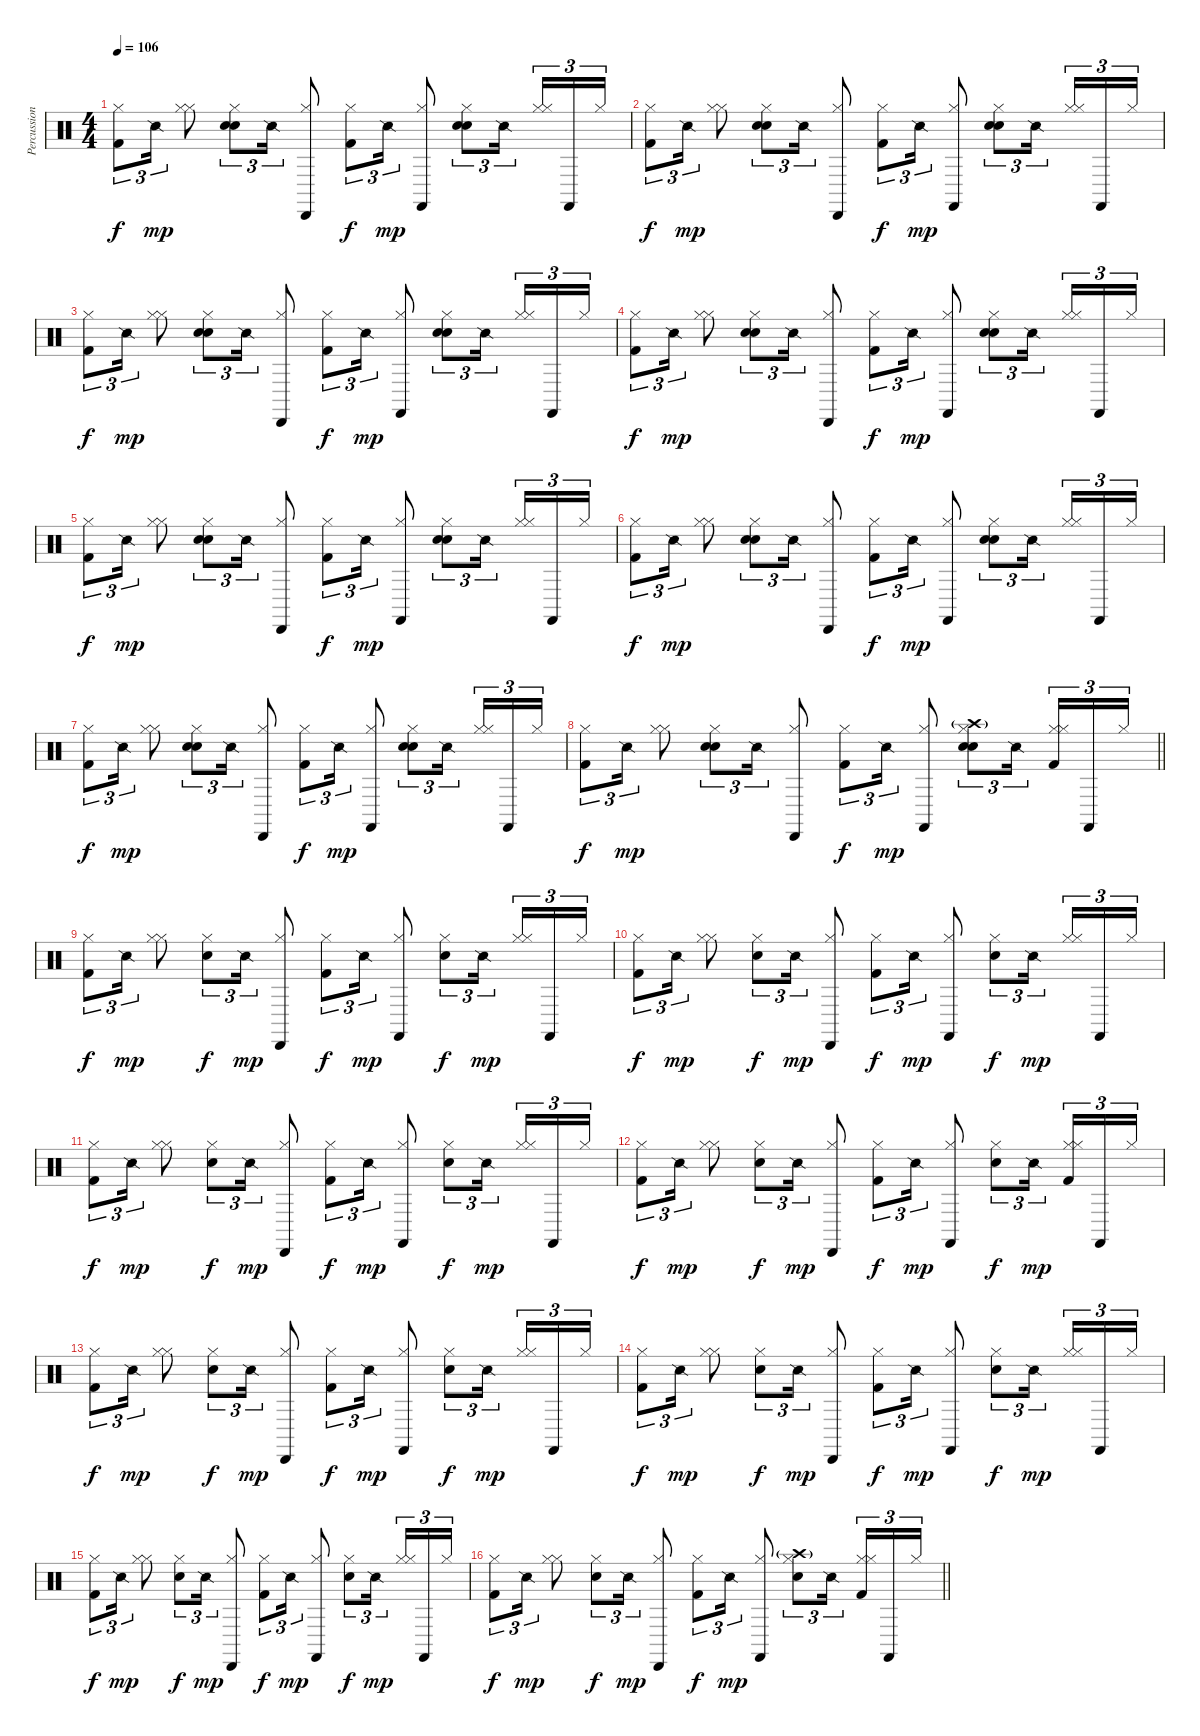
\track ("Percussion" "Percussion") {instrument percussion}
\staff {score}
\articulation defaults
\ts (4 4)
\tempo 106
\clef neutral
\ks c
("Hi-Hat (closed)" "Kick (hit) 2").8{tu (3 2) dy f} "Snare (side stick) 2".16{tu (3 2) dy mp} ("Hi-Hat (closed)" "Hi-Hat (closed)").8 ("Hand Clap (hit)" "Hi-Hat (closed)" "Electric Snare (hit)").8{tu (3 2)} "Snare (side stick) 2".16{tu (3 2)} ("Hi-Hat (closed)" "Cabasa (hit)").8 ("Hi-Hat (closed)" "Kick (hit) 2").8{tu (3 2) dy f} "Snare (side stick) 2".16{tu (3 2) dy mp} ("Hi-Hat (closed)" "Castanets (hit)").8 ("Hand Clap (hit)" "Hi-Hat (closed)" "Electric Snare (hit)").8{tu (3 2)} "Snare (side stick) 2".16{tu (3 2) beam splitsecondary} ("Hi-Hat (closed)" "Hi-Hat (closed)").16{tu (3 2)} "Castanets (hit)".16{tu (3 2)} "Hi-Hat (closed)".16{tu (3 2)} |
("Hi-Hat (closed)" "Kick (hit) 2").8{tu (3 2) dy f} "Snare (side stick) 2".16{tu (3 2) dy mp} ("Hi-Hat (closed)" "Hi-Hat (closed)").8 ("Hand Clap (hit)" "Hi-Hat (closed)" "Electric Snare (hit)").8{tu (3 2)} "Snare (side stick) 2".16{tu (3 2)} ("Hi-Hat (closed)" "Cabasa (hit)").8 ("Hi-Hat (closed)" "Kick (hit) 2").8{tu (3 2) dy f} "Snare (side stick) 2".16{tu (3 2) dy mp} ("Hi-Hat (closed)" "Castanets (hit)").8 ("Hand Clap (hit)" "Hi-Hat (closed)" "Electric Snare (hit)").8{tu (3 2)} "Snare (side stick) 2".16{tu (3 2) beam splitsecondary} ("Hi-Hat (closed)" "Hi-Hat (closed)").16{tu (3 2)} "Castanets (hit)".16{tu (3 2)} "Hi-Hat (closed)".16{tu (3 2)} |
("Hi-Hat (closed)" "Kick (hit) 2").8{tu (3 2) dy f} "Snare (side stick) 2".16{tu (3 2) dy mp} ("Hi-Hat (closed)" "Hi-Hat (closed)").8 ("Hand Clap (hit)" "Hi-Hat (closed)" "Electric Snare (hit)").8{tu (3 2)} "Snare (side stick) 2".16{tu (3 2)} ("Hi-Hat (closed)" "Cabasa (hit)").8 ("Hi-Hat (closed)" "Kick (hit) 2").8{tu (3 2) dy f} "Snare (side stick) 2".16{tu (3 2) dy mp} ("Hi-Hat (closed)" "Castanets (hit)").8 ("Hand Clap (hit)" "Hi-Hat (closed)" "Electric Snare (hit)").8{tu (3 2)} "Snare (side stick) 2".16{tu (3 2) beam splitsecondary} ("Hi-Hat (closed)" "Hi-Hat (closed)").16{tu (3 2)} "Castanets (hit)".16{tu (3 2)} "Hi-Hat (closed)".16{tu (3 2)} |
("Hi-Hat (closed)" "Kick (hit) 2").8{tu (3 2) dy f} "Snare (side stick) 2".16{tu (3 2) dy mp} ("Hi-Hat (closed)" "Hi-Hat (closed)").8 ("Hand Clap (hit)" "Hi-Hat (closed)" "Electric Snare (hit)").8{tu (3 2)} "Snare (side stick) 2".16{tu (3 2)} ("Hi-Hat (closed)" "Cabasa (hit)").8 ("Hi-Hat (closed)" "Kick (hit) 2").8{tu (3 2) dy f} "Snare (side stick) 2".16{tu (3 2) dy mp} ("Hi-Hat (closed)" "Castanets (hit)").8 ("Hand Clap (hit)" "Hi-Hat (closed)" "Electric Snare (hit)").8{tu (3 2)} "Snare (side stick) 2".16{tu (3 2) beam splitsecondary} ("Hi-Hat (closed)" "Hi-Hat (closed)").16{tu (3 2)} "Castanets (hit)".16{tu (3 2)} "Hi-Hat (closed)".16{tu (3 2)} |
("Hi-Hat (closed)" "Kick (hit) 2").8{tu (3 2) dy f} "Snare (side stick) 2".16{tu (3 2) dy mp} ("Hi-Hat (closed)" "Hi-Hat (closed)").8 ("Hand Clap (hit)" "Hi-Hat (closed)" "Electric Snare (hit)").8{tu (3 2)} "Snare (side stick) 2".16{tu (3 2)} ("Hi-Hat (closed)" "Cabasa (hit)").8 ("Hi-Hat (closed)" "Kick (hit) 2").8{tu (3 2) dy f} "Snare (side stick) 2".16{tu (3 2) dy mp} ("Hi-Hat (closed)" "Castanets (hit)").8 ("Hand Clap (hit)" "Hi-Hat (closed)" "Electric Snare (hit)").8{tu (3 2)} "Snare (side stick) 2".16{tu (3 2) beam splitsecondary} ("Hi-Hat (closed)" "Hi-Hat (closed)").16{tu (3 2)} "Castanets (hit)".16{tu (3 2)} "Hi-Hat (closed)".16{tu (3 2)} |
("Hi-Hat (closed)" "Kick (hit) 2").8{tu (3 2) dy f} "Snare (side stick) 2".16{tu (3 2) dy mp} ("Hi-Hat (closed)" "Hi-Hat (closed)").8 ("Hand Clap (hit)" "Hi-Hat (closed)" "Electric Snare (hit)").8{tu (3 2)} "Snare (side stick) 2".16{tu (3 2)} ("Hi-Hat (closed)" "Cabasa (hit)").8 ("Hi-Hat (closed)" "Kick (hit) 2").8{tu (3 2) dy f} "Snare (side stick) 2".16{tu (3 2) dy mp} ("Hi-Hat (closed)" "Castanets (hit)").8 ("Hand Clap (hit)" "Hi-Hat (closed)" "Electric Snare (hit)").8{tu (3 2)} "Snare (side stick) 2".16{tu (3 2) beam splitsecondary} ("Hi-Hat (closed)" "Hi-Hat (closed)").16{tu (3 2)} "Castanets (hit)".16{tu (3 2)} "Hi-Hat (closed)".16{tu (3 2)} |
("Hi-Hat (closed)" "Kick (hit) 2").8{tu (3 2) dy f} "Snare (side stick) 2".16{tu (3 2) dy mp} ("Hi-Hat (closed)" "Hi-Hat (closed)").8 ("Hand Clap (hit)" "Hi-Hat (closed)" "Electric Snare (hit)").8{tu (3 2)} "Snare (side stick) 2".16{tu (3 2)} ("Hi-Hat (closed)" "Cabasa (hit)").8 ("Hi-Hat (closed)" "Kick (hit) 2").8{tu (3 2) dy f} "Snare (side stick) 2".16{tu (3 2) dy mp} ("Hi-Hat (closed)" "Castanets (hit)").8 ("Hand Clap (hit)" "Hi-Hat (closed)" "Electric Snare (hit)").8{tu (3 2)} "Snare (side stick) 2".16{tu (3 2) beam splitsecondary} ("Hi-Hat (closed)" "Hi-Hat (closed)").16{tu (3 2)} "Castanets (hit)".16{tu (3 2)} "Hi-Hat (closed)".16{tu (3 2)} |
\barLineRight lightlight
("Hi-Hat (closed)" "Kick (hit) 2").8{tu (3 2) dy f} "Snare (side stick) 2".16{tu (3 2) dy mp} ("Hi-Hat (closed)" "Hi-Hat (closed)").8 ("Hand Clap (hit)" "Hi-Hat (closed)" "Electric Snare (hit)").8{tu (3 2)} "Snare (side stick) 2".16{tu (3 2)} ("Hi-Hat (closed)" "Cabasa (hit)").8 ("Hi-Hat (closed)" "Kick (hit) 2").8{tu (3 2) dy f} "Snare (side stick) 2".16{tu (3 2) dy mp} ("Hi-Hat (closed)" "Castanets (hit)").8 ("Crash high (hit)"{g} "Hi-Hat (closed)" "Electric Snare (hit)" "Hand Clap (hit)").8{tu (3 2)} "Snare (side stick) 2".16{tu (3 2) beam splitsecondary} ("Hi-Hat (closed)" "Hi-Hat (closed)" "Kick (hit) 2").16{tu (3 2)} "Castanets (hit)".16{tu (3 2)} "Hi-Hat (closed)".16{tu (3 2)} |
\section ("" "")
("Hi-Hat (closed)" "Kick (hit) 2").8{tu (3 2) dy f} "Snare (side stick) 2".16{tu (3 2) dy mp} ("Hi-Hat (closed)" "Hi-Hat (closed)").8 ("Hi-Hat (closed)" "Electric Snare (hit)").8{tu (3 2) dy f} "Snare (side stick) 2".16{tu (3 2) dy mp} ("Hi-Hat (closed)" "Cabasa (hit)").8 ("Hi-Hat (closed)" "Kick (hit) 2").8{tu (3 2) dy f} "Snare (side stick) 2".16{tu (3 2) dy mp} ("Hi-Hat (closed)" "Castanets (hit)").8 ("Hi-Hat (closed)" "Electric Snare (hit)").8{tu (3 2) dy f} "Snare (side stick) 2".16{tu (3 2) dy mp beam splitsecondary} ("Hi-Hat (closed)" "Hi-Hat (closed)").16{tu (3 2)} "Castanets (hit)".16{tu (3 2)} "Hi-Hat (closed)".16{tu (3 2)} |
("Hi-Hat (closed)" "Kick (hit) 2").8{tu (3 2) dy f} "Snare (side stick) 2".16{tu (3 2) dy mp} ("Hi-Hat (closed)" "Hi-Hat (closed)").8 ("Hi-Hat (closed)" "Electric Snare (hit)").8{tu (3 2) dy f} "Snare (side stick) 2".16{tu (3 2) dy mp} ("Hi-Hat (closed)" "Cabasa (hit)").8 ("Hi-Hat (closed)" "Kick (hit) 2").8{tu (3 2) dy f} "Snare (side stick) 2".16{tu (3 2) dy mp} ("Hi-Hat (closed)" "Castanets (hit)").8 ("Hi-Hat (closed)" "Electric Snare (hit)").8{tu (3 2) dy f} "Snare (side stick) 2".16{tu (3 2) dy mp beam splitsecondary} ("Hi-Hat (closed)" "Hi-Hat (closed)").16{tu (3 2)} "Castanets (hit)".16{tu (3 2)} "Hi-Hat (closed)".16{tu (3 2)} |
("Hi-Hat (closed)" "Kick (hit) 2").8{tu (3 2) dy f} "Snare (side stick) 2".16{tu (3 2) dy mp} ("Hi-Hat (closed)" "Hi-Hat (closed)").8 ("Hi-Hat (closed)" "Electric Snare (hit)").8{tu (3 2) dy f} "Snare (side stick) 2".16{tu (3 2) dy mp} ("Hi-Hat (closed)" "Cabasa (hit)").8 ("Hi-Hat (closed)" "Kick (hit) 2").8{tu (3 2) dy f} "Snare (side stick) 2".16{tu (3 2) dy mp} ("Hi-Hat (closed)" "Castanets (hit)").8 ("Hi-Hat (closed)" "Electric Snare (hit)").8{tu (3 2) dy f} "Snare (side stick) 2".16{tu (3 2) dy mp beam splitsecondary} ("Hi-Hat (closed)" "Hi-Hat (closed)").16{tu (3 2)} "Castanets (hit)".16{tu (3 2)} "Hi-Hat (closed)".16{tu (3 2)} |
("Hi-Hat (closed)" "Kick (hit) 2").8{tu (3 2) dy f} "Snare (side stick) 2".16{tu (3 2) dy mp} ("Hi-Hat (closed)" "Hi-Hat (closed)").8 ("Hi-Hat (closed)" "Electric Snare (hit)").8{tu (3 2) dy f} "Snare (side stick) 2".16{tu (3 2) dy mp} ("Hi-Hat (closed)" "Cabasa (hit)").8 ("Hi-Hat (closed)" "Kick (hit) 2").8{tu (3 2) dy f} "Snare (side stick) 2".16{tu (3 2) dy mp} ("Hi-Hat (closed)" "Castanets (hit)").8 ("Hi-Hat (closed)" "Electric Snare (hit)").8{tu (3 2) dy f} "Snare (side stick) 2".16{tu (3 2) dy mp beam splitsecondary} ("Hi-Hat (closed)" "Hi-Hat (closed)" "Kick (hit) 2").16{tu (3 2)} "Castanets (hit)".16{tu (3 2)} "Hi-Hat (closed)".16{tu (3 2)} |
("Hi-Hat (closed)" "Kick (hit) 2").8{tu (3 2) dy f} "Snare (side stick) 2".16{tu (3 2) dy mp} ("Hi-Hat (closed)" "Hi-Hat (closed)").8 ("Hi-Hat (closed)" "Electric Snare (hit)").8{tu (3 2) dy f} "Snare (side stick) 2".16{tu (3 2) dy mp} ("Hi-Hat (closed)" "Cabasa (hit)").8 ("Hi-Hat (closed)" "Kick (hit) 2").8{tu (3 2) dy f} "Snare (side stick) 2".16{tu (3 2) dy mp} ("Hi-Hat (closed)" "Castanets (hit)").8 ("Hi-Hat (closed)" "Electric Snare (hit)").8{tu (3 2) dy f} "Snare (side stick) 2".16{tu (3 2) dy mp beam splitsecondary} ("Hi-Hat (closed)" "Hi-Hat (closed)").16{tu (3 2)} "Castanets (hit)".16{tu (3 2)} "Hi-Hat (closed)".16{tu (3 2)} |
("Hi-Hat (closed)" "Kick (hit) 2").8{tu (3 2) dy f} "Snare (side stick) 2".16{tu (3 2) dy mp} ("Hi-Hat (closed)" "Hi-Hat (closed)").8 ("Hi-Hat (closed)" "Electric Snare (hit)").8{tu (3 2) dy f} "Snare (side stick) 2".16{tu (3 2) dy mp} ("Hi-Hat (closed)" "Cabasa (hit)").8 ("Hi-Hat (closed)" "Kick (hit) 2").8{tu (3 2) dy f} "Snare (side stick) 2".16{tu (3 2) dy mp} ("Hi-Hat (closed)" "Castanets (hit)").8 ("Hi-Hat (closed)" "Electric Snare (hit)").8{tu (3 2) dy f} "Snare (side stick) 2".16{tu (3 2) dy mp beam splitsecondary} ("Hi-Hat (closed)" "Hi-Hat (closed)").16{tu (3 2)} "Castanets (hit)".16{tu (3 2)} "Hi-Hat (closed)".16{tu (3 2)} |
("Hi-Hat (closed)" "Kick (hit) 2").8{tu (3 2) dy f} "Snare (side stick) 2".16{tu (3 2) dy mp} ("Hi-Hat (closed)" "Hi-Hat (closed)").8 ("Hi-Hat (closed)" "Electric Snare (hit)").8{tu (3 2) dy f} "Snare (side stick) 2".16{tu (3 2) dy mp} ("Hi-Hat (closed)" "Cabasa (hit)").8 ("Hi-Hat (closed)" "Kick (hit) 2").8{tu (3 2) dy f} "Snare (side stick) 2".16{tu (3 2) dy mp} ("Hi-Hat (closed)" "Castanets (hit)").8 ("Hi-Hat (closed)" "Electric Snare (hit)").8{tu (3 2) dy f} "Snare (side stick) 2".16{tu (3 2) dy mp beam splitsecondary} ("Hi-Hat (closed)" "Hi-Hat (closed)").16{tu (3 2)} "Castanets (hit)".16{tu (3 2)} "Hi-Hat (closed)".16{tu (3 2)} |
\barLineRight lightlight
("Hi-Hat (closed)" "Kick (hit) 2").8{tu (3 2) dy f} "Snare (side stick) 2".16{tu (3 2) dy mp} ("Hi-Hat (closed)" "Hi-Hat (closed)").8 ("Hi-Hat (closed)" "Electric Snare (hit)").8{tu (3 2) dy f} "Snare (side stick) 2".16{tu (3 2) dy mp} ("Hi-Hat (closed)" "Cabasa (hit)").8 ("Hi-Hat (closed)" "Kick (hit) 2").8{tu (3 2) dy f} "Snare (side stick) 2".16{tu (3 2) dy mp} ("Hi-Hat (closed)" "Castanets (hit)").8 ("Crash high (hit)"{g} "Hi-Hat (closed)" "Electric Snare (hit)").8{tu (3 2)} "Snare (side stick) 2".16{tu (3 2) beam splitsecondary} ("Hi-Hat (closed)" "Hi-Hat (closed)" "Kick (hit) 2").16{tu (3 2)} "Castanets (hit)".16{tu (3 2)} "Hi-Hat (closed)".16{tu (3 2)}
